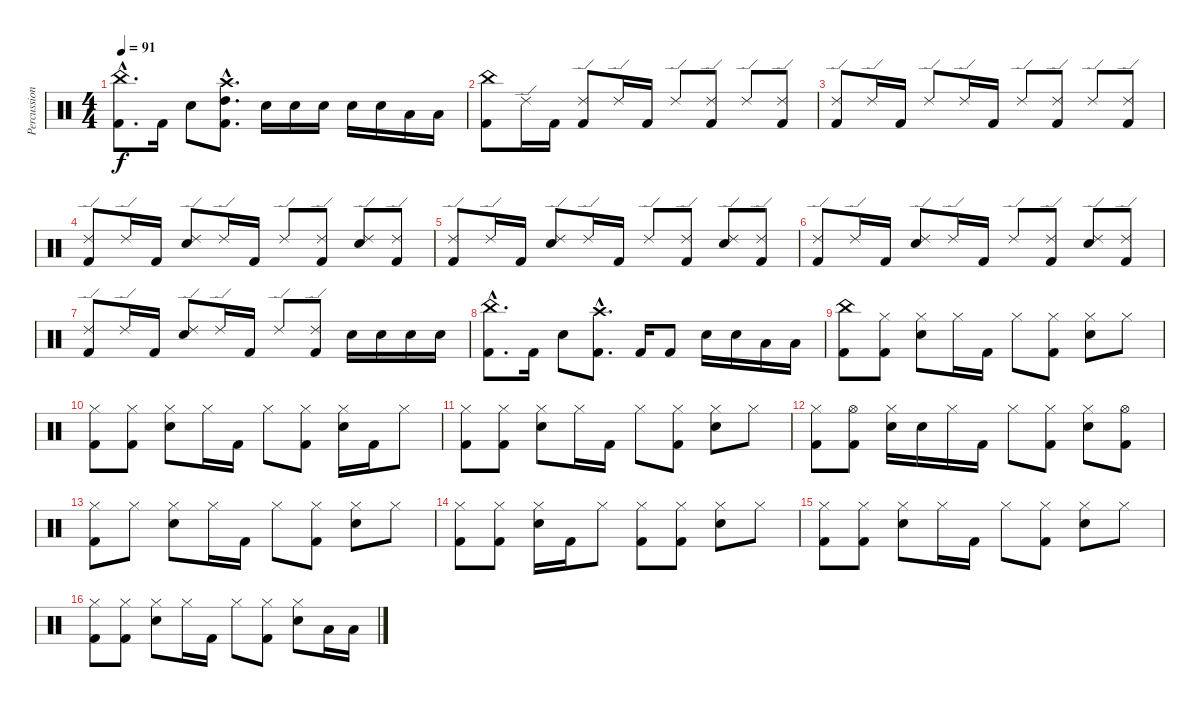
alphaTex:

\track ("Percussion" "Percussion") {instrument percussion}
\staff {score}
\articulation defaults
\ts (4 4)
\tempo 91
\clef neutral
\ks c
("Kick (hit) 2"{hac} "China (hit)"{hac}).8{d dy f} "Kick (hit) 2".16 "Electric Snare (hit)".8 ("High Tom (hit)"{hac} "Crash high (hit)"{hac} "Kick (hit) 2"{hac}).8{d} "Electric Snare (hit)".16 "Electric Snare (hit)".16 "Electric Snare (hit)".16 "Electric Snare (hit)".16 "Electric Snare (hit)".16 "Low Tom (hit)".16 "Low Tom (hit)".16 |
("Kick (hit) 2" "China (hit)").8 "Ride (edge) 2".16 "Kick (hit) 2".16 ("Ride (edge) 2" "Kick (hit) 2").8 "Ride (edge) 2".16 "Kick (hit) 2".16 "Ride (edge) 2".8 ("Kick (hit) 2" "Ride (edge) 2").8 "Ride (edge) 2".8 ("Ride (edge) 2" "Kick (hit) 2").8 |
("Kick (hit) 2" "Ride (edge) 2").8 "Ride (edge) 2".16 "Kick (hit) 2".16 "Ride (edge) 2".8 "Ride (edge) 2".16 "Kick (hit) 2".16 "Ride (edge) 2".8 ("Kick (hit) 2" "Ride (edge) 2").8 "Ride (edge) 2".8 ("Ride (edge) 2" "Kick (hit) 2").8 |
("Kick (hit) 2" "Ride (edge) 2").8 "Ride (edge) 2".16 "Kick (hit) 2".16 ("Ride (edge) 2" "Electric Snare (hit)").8 "Ride (edge) 2".16 "Kick (hit) 2".16 "Ride (edge) 2".8 ("Kick (hit) 2" "Ride (edge) 2").8 ("Electric Snare (hit)" "Ride (edge) 2").8 ("Ride (edge) 2" "Kick (hit) 2").8 |
("Ride (edge) 2" "Kick (hit) 2").8 "Ride (edge) 2".16 "Kick (hit) 2".16 ("Electric Snare (hit)" "Ride (edge) 2").8 "Ride (edge) 2".16 "Kick (hit) 2".16 "Ride (edge) 2".8 ("Kick (hit) 2" "Ride (edge) 2").8 ("Electric Snare (hit)" "Ride (edge) 2").8 ("Kick (hit) 2" "Ride (edge) 2").8 |
("Ride (edge) 2" "Kick (hit) 2").8 "Ride (edge) 2".16 "Kick (hit) 2".16 ("Ride (edge) 2" "Electric Snare (hit)").8 "Ride (edge) 2".16 "Kick (hit) 2".16 "Ride (edge) 2".8 ("Kick (hit) 2" "Ride (edge) 2").8 ("Ride (edge) 2" "Electric Snare (hit)").8 ("Ride (edge) 2" "Kick (hit) 2").8 |
("Kick (hit) 2" "Ride (edge) 2").8 "Ride (edge) 2".16 "Kick (hit) 2".16 ("Ride (edge) 2" "Electric Snare (hit)").8 "Ride (edge) 2".16 "Kick (hit) 2".16 "Ride (edge) 2".8 ("Kick (hit) 2" "Ride (edge) 2").8 "Electric Snare (hit)".16 "Electric Snare (hit)".16 "Electric Snare (hit)".16 "Electric Snare (hit)".16 |
("China (hit)"{hac} "Kick (hit) 2"{hac}).8{d} "Kick (hit) 2".16 "Electric Snare (hit)".8 ("Kick (hit) 2"{hac} "Crash high (hit)"{hac}).8{d} "Kick (hit) 2".16 "Kick (hit) 2".8 "Electric Snare (hit)".16 "Electric Snare (hit)".16 "Low Tom (hit)".16 "Low Tom (hit)".16 |
("China (hit)" "Kick (hit) 2").8 ("Hi-Hat (closed)" "Kick (hit) 2").8 ("Electric Snare (hit)" "Hi-Hat (closed)").8 "Hi-Hat (closed)".16 "Kick (hit) 2".16 "Hi-Hat (closed)".8 ("Kick (hit) 2" "Hi-Hat (closed)").8 ("Electric Snare (hit)" "Hi-Hat (closed)").8 "Hi-Hat (closed)".8 |
("Hi-Hat (closed)" "Kick (hit) 2").8 ("Hi-Hat (closed)" "Kick (hit) 2").8 ("Hi-Hat (closed)" "Electric Snare (hit)").8 "Hi-Hat (closed)".16 "Kick (hit) 2".16 "Hi-Hat (closed)".8 ("Kick (hit) 2" "Hi-Hat (closed)").8 ("Electric Snare (hit)" "Hi-Hat (closed)").16 "Kick (hit) 2".16 "Hi-Hat (closed)".8 |
("Kick (hit) 2" "Hi-Hat (closed)").8 ("Hi-Hat (closed)" "Kick (hit) 2").8 ("Hi-Hat (closed)" "Electric Snare (hit)").8 "Hi-Hat (closed)".16 "Kick (hit) 2".16 "Hi-Hat (closed)".8 ("Kick (hit) 2" "Hi-Hat (closed)").8 ("Electric Snare (hit)" "Hi-Hat (closed)").8 "Hi-Hat (closed)".8 |
("Hi-Hat (closed)" "Kick (hit) 2").8 ("Hi-Hat (open)" "Kick (hit) 2").8 ("Hi-Hat (closed)" "Electric Snare (hit)").16 "Electric Snare (hit)".16 "Hi-Hat (closed)".16 "Kick (hit) 2".16 "Hi-Hat (closed)".8 ("Hi-Hat (closed)" "Kick (hit) 2").8 ("Electric Snare (hit)" "Hi-Hat (closed)").8 ("Hi-Hat (open)" "Kick (hit) 2").8 |
("Hi-Hat (closed)" "Kick (hit) 2").8 "Hi-Hat (closed)".8 ("Electric Snare (hit)" "Hi-Hat (closed)").8 "Hi-Hat (closed)".16 "Kick (hit) 2".16 "Hi-Hat (closed)".8 ("Kick (hit) 2" "Hi-Hat (closed)").8 ("Hi-Hat (closed)" "Electric Snare (hit)").8 "Hi-Hat (closed)".8 |
("Hi-Hat (closed)" "Kick (hit) 2").8 ("Hi-Hat (closed)" "Kick (hit) 2").8 ("Hi-Hat (closed)" "Electric Snare (hit)").16 "Kick (hit) 2".16 "Hi-Hat (closed)".8 ("Kick (hit) 2" "Hi-Hat (closed)").8 ("Kick (hit) 2" "Hi-Hat (closed)").8 ("Hi-Hat (closed)" "Electric Snare (hit)").8 "Hi-Hat (closed)".8 |
("Kick (hit) 2" "Hi-Hat (closed)").8 ("Kick (hit) 2" "Hi-Hat (closed)").8 ("Electric Snare (hit)" "Hi-Hat (closed)").8 "Hi-Hat (closed)".16 "Kick (hit) 2".16 "Hi-Hat (closed)".8 ("Kick (hit) 2" "Hi-Hat (closed)").8 ("Electric Snare (hit)" "Hi-Hat (closed)").8 "Hi-Hat (closed)".8 |
("Kick (hit) 2" "Hi-Hat (closed)").8 ("Kick (hit) 2" "Hi-Hat (closed)").8 ("Electric Snare (hit)" "Hi-Hat (closed)").8 "Hi-Hat (closed)".16 "Kick (hit) 2".16 "Hi-Hat (closed)".8 ("Hi-Hat (closed)" "Kick (hit) 2").8 ("Electric Snare (hit)" "Hi-Hat (closed)").8 "Low Tom (hit)".16 "Low Tom (hit)".16
